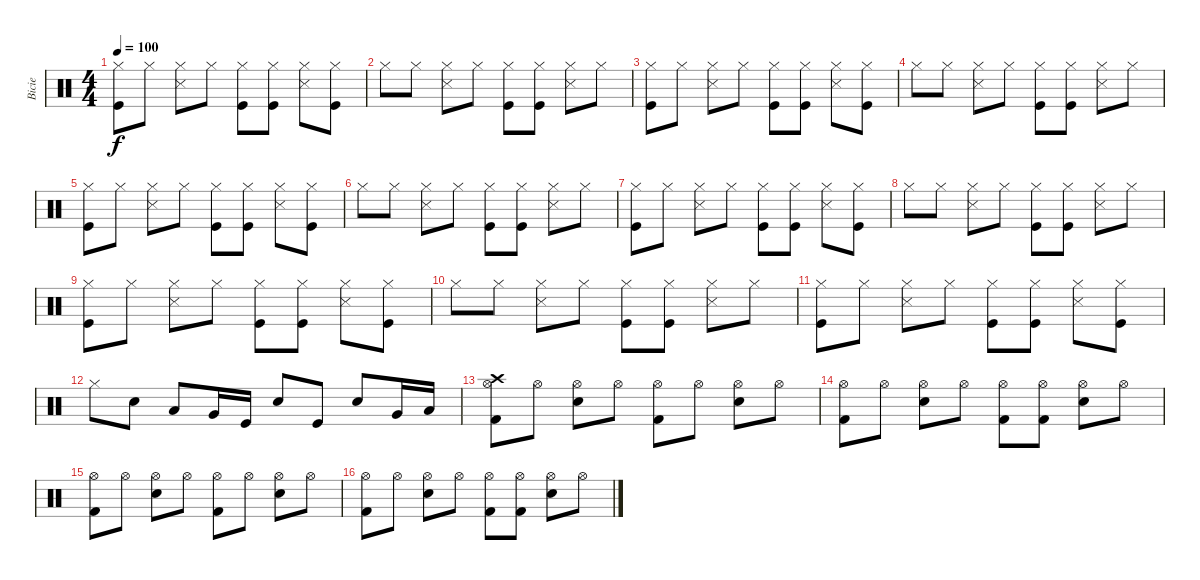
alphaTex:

\track ("Bicie" "Bicie") {instrument percussion}
\staff {score}
\articulation defaults
\ts (4 4)
\tempo 100
\clef neutral
\ks c
("Hi-Hat (closed)" "Kick (hit)").8{dy f} "Hi-Hat (closed)".8 ("Hi-Hat (closed)" "Snare (side stick) 3").8 "Hi-Hat (closed)".8 ("Hi-Hat (closed)" "Kick (hit)").8 ("Hi-Hat (closed)" "Kick (hit)").8 ("Hi-Hat (closed)" "Snare (side stick) 3").8 ("Hi-Hat (closed)" "Kick (hit)").8 |
"Hi-Hat (closed)".8 "Hi-Hat (closed)".8 ("Hi-Hat (closed)" "Snare (side stick) 3").8 "Hi-Hat (closed)".8 ("Hi-Hat (closed)" "Kick (hit)").8 ("Hi-Hat (closed)" "Kick (hit)").8 ("Hi-Hat (closed)" "Snare (side stick) 3").8 "Hi-Hat (closed)".8 |
("Hi-Hat (closed)" "Kick (hit)").8 "Hi-Hat (closed)".8 ("Hi-Hat (closed)" "Snare (side stick) 3").8 "Hi-Hat (closed)".8 ("Hi-Hat (closed)" "Kick (hit)").8 ("Hi-Hat (closed)" "Kick (hit)").8 ("Hi-Hat (closed)" "Snare (side stick) 3").8 ("Hi-Hat (closed)" "Kick (hit)").8 |
"Hi-Hat (closed)".8 "Hi-Hat (closed)".8 ("Hi-Hat (closed)" "Snare (side stick) 3").8 "Hi-Hat (closed)".8 ("Hi-Hat (closed)" "Kick (hit)").8 ("Hi-Hat (closed)" "Kick (hit)").8 ("Hi-Hat (closed)" "Snare (side stick) 3").8 "Hi-Hat (closed)".8 |
("Hi-Hat (closed)" "Kick (hit)").8 "Hi-Hat (closed)".8 ("Hi-Hat (closed)" "Snare (side stick) 3").8 "Hi-Hat (closed)".8 ("Hi-Hat (closed)" "Kick (hit)").8 ("Hi-Hat (closed)" "Kick (hit)").8 ("Hi-Hat (closed)" "Snare (side stick) 3").8 ("Hi-Hat (closed)" "Kick (hit)").8 |
"Hi-Hat (closed)".8 "Hi-Hat (closed)".8 ("Hi-Hat (closed)" "Snare (side stick) 3").8 "Hi-Hat (closed)".8 ("Hi-Hat (closed)" "Kick (hit)").8 ("Hi-Hat (closed)" "Kick (hit)").8 ("Hi-Hat (closed)" "Snare (side stick) 3").8 "Hi-Hat (closed)".8 |
("Hi-Hat (closed)" "Kick (hit)").8 "Hi-Hat (closed)".8 ("Hi-Hat (closed)" "Snare (side stick) 3").8 "Hi-Hat (closed)".8 ("Hi-Hat (closed)" "Kick (hit)").8 ("Hi-Hat (closed)" "Kick (hit)").8 ("Hi-Hat (closed)" "Snare (side stick) 3").8 ("Hi-Hat (closed)" "Kick (hit)").8 |
"Hi-Hat (closed)".8 "Hi-Hat (closed)".8 ("Hi-Hat (closed)" "Snare (side stick) 3").8 "Hi-Hat (closed)".8 ("Hi-Hat (closed)" "Kick (hit)").8 ("Hi-Hat (closed)" "Kick (hit)").8 ("Hi-Hat (closed)" "Snare (side stick) 3").8 "Hi-Hat (closed)".8 |
("Hi-Hat (closed)" "Kick (hit)").8 "Hi-Hat (closed)".8 ("Hi-Hat (closed)" "Snare (side stick) 3").8 "Hi-Hat (closed)".8 ("Hi-Hat (closed)" "Kick (hit)").8 ("Hi-Hat (closed)" "Kick (hit)").8 ("Hi-Hat (closed)" "Snare (side stick) 3").8 ("Hi-Hat (closed)" "Kick (hit)").8 |
"Hi-Hat (closed)".8 "Hi-Hat (closed)".8 ("Hi-Hat (closed)" "Snare (side stick) 3").8 "Hi-Hat (closed)".8 ("Hi-Hat (closed)" "Kick (hit)").8 ("Hi-Hat (closed)" "Kick (hit)").8 ("Hi-Hat (closed)" "Snare (side stick) 3").8 "Hi-Hat (closed)".8 |
("Hi-Hat (closed)" "Kick (hit)").8 "Hi-Hat (closed)".8 ("Hi-Hat (closed)" "Snare (side stick) 3").8 "Hi-Hat (closed)".8 ("Hi-Hat (closed)" "Kick (hit)").8 ("Hi-Hat (closed)" "Kick (hit)").8 ("Hi-Hat (closed)" "Snare (side stick) 3").8 ("Hi-Hat (closed)" "Kick (hit)").8 |
"Hi-Hat (closed)".8 "Snare (hit) 2".8 "Low Tom (hit)".8 "Very Low Tom (hit)".16 "Kick (hit)".16 "Snare (hit) 2".8 "Kick (hit)".8 "Snare (hit) 2".8 "Very Low Tom (hit)".16 "Low Floor Tom (hit)".16 |
("Crash high (hit)" "Hi-Hat (open)" "Kick (hit) 2").8 "Hi-Hat (open)".8 ("Hi-Hat (open)" "Snare (hit) 2").8 "Hi-Hat (open)".8 ("Hi-Hat (open)" "Kick (hit) 2").8 "Hi-Hat (open)".8 ("Hi-Hat (open)" "Snare (hit) 2").8 "Hi-Hat (open)".8 |
("Hi-Hat (open)" "Kick (hit) 2").8 "Hi-Hat (open)".8 ("Hi-Hat (open)" "Snare (hit) 2").8 "Hi-Hat (open)".8 ("Hi-Hat (open)" "Kick (hit) 2").8 ("Hi-Hat (open)" "Kick (hit) 2").8 ("Hi-Hat (open)" "Snare (hit) 2").8 "Hi-Hat (open)".8 |
("Hi-Hat (open)" "Kick (hit) 2").8 "Hi-Hat (open)".8 ("Hi-Hat (open)" "Snare (hit) 2").8 "Hi-Hat (open)".8 ("Hi-Hat (open)" "Kick (hit) 2").8 "Hi-Hat (open)".8 ("Hi-Hat (open)" "Snare (hit) 2").8 "Hi-Hat (open)".8 |
("Hi-Hat (open)" "Kick (hit) 2").8 "Hi-Hat (open)".8 ("Hi-Hat (open)" "Snare (hit) 2").8 "Hi-Hat (open)".8 ("Hi-Hat (open)" "Kick (hit) 2").8 ("Hi-Hat (open)" "Kick (hit) 2").8 ("Hi-Hat (open)" "Snare (hit) 2").8 "Hi-Hat (open)".8
